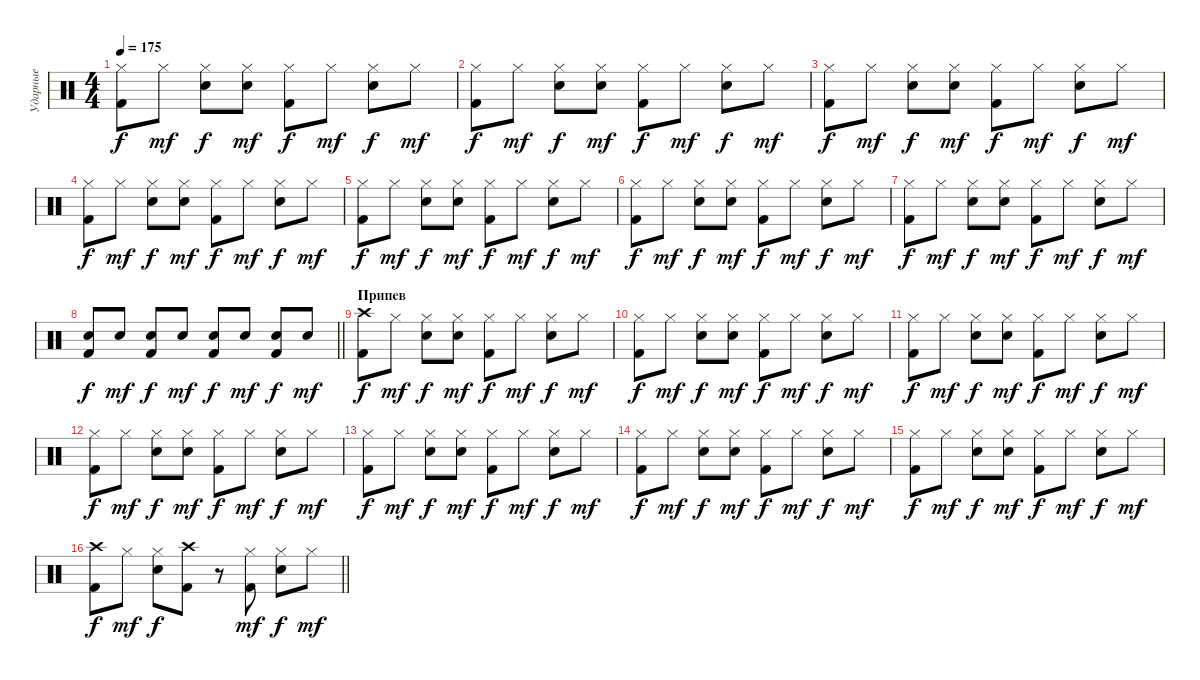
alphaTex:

\track ("Ударные" "Ударные") {instrument percussion}
\staff {score}
\articulation defaults
\ts (4 4)
\section ("" "")
\tempo 175
\clef neutral
\ks c
("Hi-Hat (closed)" "Kick (hit) 2").8{dy f} "Hi-Hat (closed)".8{dy mf} ("Hi-Hat (closed)" "Snare (hit) 2").8{dy f} ("Hi-Hat (closed)" "Snare (hit) 2").8{dy mf} ("Hi-Hat (closed)" "Kick (hit) 2").8{dy f} "Hi-Hat (closed)".8{dy mf} ("Hi-Hat (closed)" "Snare (hit) 2").8{dy f} "Hi-Hat (closed)".8{dy mf} |
("Hi-Hat (closed)" "Kick (hit) 2").8{dy f} "Hi-Hat (closed)".8{dy mf} ("Hi-Hat (closed)" "Snare (hit) 2").8{dy f} ("Hi-Hat (closed)" "Snare (hit) 2").8{dy mf} ("Hi-Hat (closed)" "Kick (hit) 2").8{dy f} "Hi-Hat (closed)".8{dy mf} ("Hi-Hat (closed)" "Snare (hit) 2").8{dy f} "Hi-Hat (closed)".8{dy mf} |
("Hi-Hat (closed)" "Kick (hit) 2").8{dy f} "Hi-Hat (closed)".8{dy mf} ("Hi-Hat (closed)" "Snare (hit) 2").8{dy f} ("Hi-Hat (closed)" "Snare (hit) 2").8{dy mf} ("Hi-Hat (closed)" "Kick (hit) 2").8{dy f} "Hi-Hat (closed)".8{dy mf} ("Hi-Hat (closed)" "Snare (hit) 2").8{dy f} "Hi-Hat (closed)".8{dy mf} |
("Hi-Hat (closed)" "Kick (hit) 2").8{dy f} "Hi-Hat (closed)".8{dy mf} ("Hi-Hat (closed)" "Snare (hit) 2").8{dy f} ("Hi-Hat (closed)" "Snare (hit) 2").8{dy mf} ("Hi-Hat (closed)" "Kick (hit) 2").8{dy f} "Hi-Hat (closed)".8{dy mf} ("Hi-Hat (closed)" "Snare (hit) 2").8{dy f} "Hi-Hat (closed)".8{dy mf} |
("Hi-Hat (closed)" "Kick (hit) 2").8{dy f} "Hi-Hat (closed)".8{dy mf} ("Hi-Hat (closed)" "Snare (hit) 2").8{dy f} ("Hi-Hat (closed)" "Snare (hit) 2").8{dy mf} ("Hi-Hat (closed)" "Kick (hit) 2").8{dy f} "Hi-Hat (closed)".8{dy mf} ("Hi-Hat (closed)" "Snare (hit) 2").8{dy f} "Hi-Hat (closed)".8{dy mf} |
("Hi-Hat (closed)" "Kick (hit) 2").8{dy f} "Hi-Hat (closed)".8{dy mf} ("Hi-Hat (closed)" "Snare (hit) 2").8{dy f} ("Hi-Hat (closed)" "Snare (hit) 2").8{dy mf} ("Hi-Hat (closed)" "Kick (hit) 2").8{dy f} "Hi-Hat (closed)".8{dy mf} ("Hi-Hat (closed)" "Snare (hit) 2").8{dy f} "Hi-Hat (closed)".8{dy mf} |
("Hi-Hat (closed)" "Kick (hit) 2").8{dy f} "Hi-Hat (closed)".8{dy mf} ("Hi-Hat (closed)" "Snare (hit) 2").8{dy f} ("Hi-Hat (closed)" "Snare (hit) 2").8{dy mf} ("Hi-Hat (closed)" "Kick (hit) 2").8{dy f} "Hi-Hat (closed)".8{dy mf} ("Hi-Hat (closed)" "Snare (hit) 2").8{dy f} "Hi-Hat (closed)".8{dy mf} |
\barLineRight lightlight
("Snare (hit) 2" "Kick (hit) 2").8{dy f} "Snare (hit) 2".8{dy mf} ("Snare (hit) 2" "Kick (hit) 2").8{dy f} "Snare (hit) 2".8{dy mf} ("Snare (hit) 2" "Kick (hit) 2").8{dy f} "Snare (hit) 2".8{dy mf} ("Snare (hit) 2" "Kick (hit) 2").8{dy f} "Snare (hit) 2".8{dy mf} |
\section ("" "Припев")
("Crash high (hit)" "Kick (hit) 2").8{dy f} "Hi-Hat (closed)".8{dy mf} ("Hi-Hat (closed)" "Snare (hit) 2").8{dy f} ("Hi-Hat (closed)" "Snare (hit) 2").8{dy mf} ("Hi-Hat (closed)" "Kick (hit) 2").8{dy f} "Hi-Hat (closed)".8{dy mf} ("Hi-Hat (closed)" "Snare (hit) 2").8{dy f} "Hi-Hat (closed)".8{dy mf} |
("Hi-Hat (closed)" "Kick (hit) 2").8{dy f} "Hi-Hat (closed)".8{dy mf} ("Hi-Hat (closed)" "Snare (hit) 2").8{dy f} ("Hi-Hat (closed)" "Snare (hit) 2").8{dy mf} ("Hi-Hat (closed)" "Kick (hit) 2").8{dy f} "Hi-Hat (closed)".8{dy mf} ("Hi-Hat (closed)" "Snare (hit) 2").8{dy f} "Hi-Hat (closed)".8{dy mf} |
("Hi-Hat (closed)" "Kick (hit) 2").8{dy f} "Hi-Hat (closed)".8{dy mf} ("Hi-Hat (closed)" "Snare (hit) 2").8{dy f} ("Hi-Hat (closed)" "Snare (hit) 2").8{dy mf} ("Hi-Hat (closed)" "Kick (hit) 2").8{dy f} "Hi-Hat (closed)".8{dy mf} ("Hi-Hat (closed)" "Snare (hit) 2").8{dy f} "Hi-Hat (closed)".8{dy mf} |
("Hi-Hat (closed)" "Kick (hit) 2").8{dy f} "Hi-Hat (closed)".8{dy mf} ("Hi-Hat (closed)" "Snare (hit) 2").8{dy f} ("Hi-Hat (closed)" "Snare (hit) 2").8{dy mf} ("Hi-Hat (closed)" "Kick (hit) 2").8{dy f} "Hi-Hat (closed)".8{dy mf} ("Hi-Hat (closed)" "Snare (hit) 2").8{dy f} "Hi-Hat (closed)".8{dy mf} |
("Hi-Hat (closed)" "Kick (hit) 2").8{dy f} "Hi-Hat (closed)".8{dy mf} ("Hi-Hat (closed)" "Snare (hit) 2").8{dy f} ("Hi-Hat (closed)" "Snare (hit) 2").8{dy mf} ("Hi-Hat (closed)" "Kick (hit) 2").8{dy f} "Hi-Hat (closed)".8{dy mf} ("Hi-Hat (closed)" "Snare (hit) 2").8{dy f} "Hi-Hat (closed)".8{dy mf} |
("Hi-Hat (closed)" "Kick (hit) 2").8{dy f} "Hi-Hat (closed)".8{dy mf} ("Hi-Hat (closed)" "Snare (hit) 2").8{dy f} ("Hi-Hat (closed)" "Snare (hit) 2").8{dy mf} ("Hi-Hat (closed)" "Kick (hit) 2").8{dy f} "Hi-Hat (closed)".8{dy mf} ("Hi-Hat (closed)" "Snare (hit) 2").8{dy f} "Hi-Hat (closed)".8{dy mf} |
("Hi-Hat (closed)" "Kick (hit) 2").8{dy f} "Hi-Hat (closed)".8{dy mf} ("Hi-Hat (closed)" "Snare (hit) 2").8{dy f} ("Hi-Hat (closed)" "Snare (hit) 2").8{dy mf} ("Hi-Hat (closed)" "Kick (hit) 2").8{dy f} "Hi-Hat (closed)".8{dy mf} ("Hi-Hat (closed)" "Snare (hit) 2").8{dy f} "Hi-Hat (closed)".8{dy mf} |
\barLineRight lightlight
("Crash high (hit)" "Kick (hit) 2").8{dy f} "Hi-Hat (closed)".8{dy mf} ("Hi-Hat (closed)" "Snare (hit) 2").8{dy f} ("Crash high (hit)" "Kick (hit) 2").8 r.8 ("Hi-Hat (closed)" "Kick (hit) 2").8{dy mf} ("Hi-Hat (closed)" "Snare (hit) 2").8{dy f} "Hi-Hat (closed)".8{dy mf}
